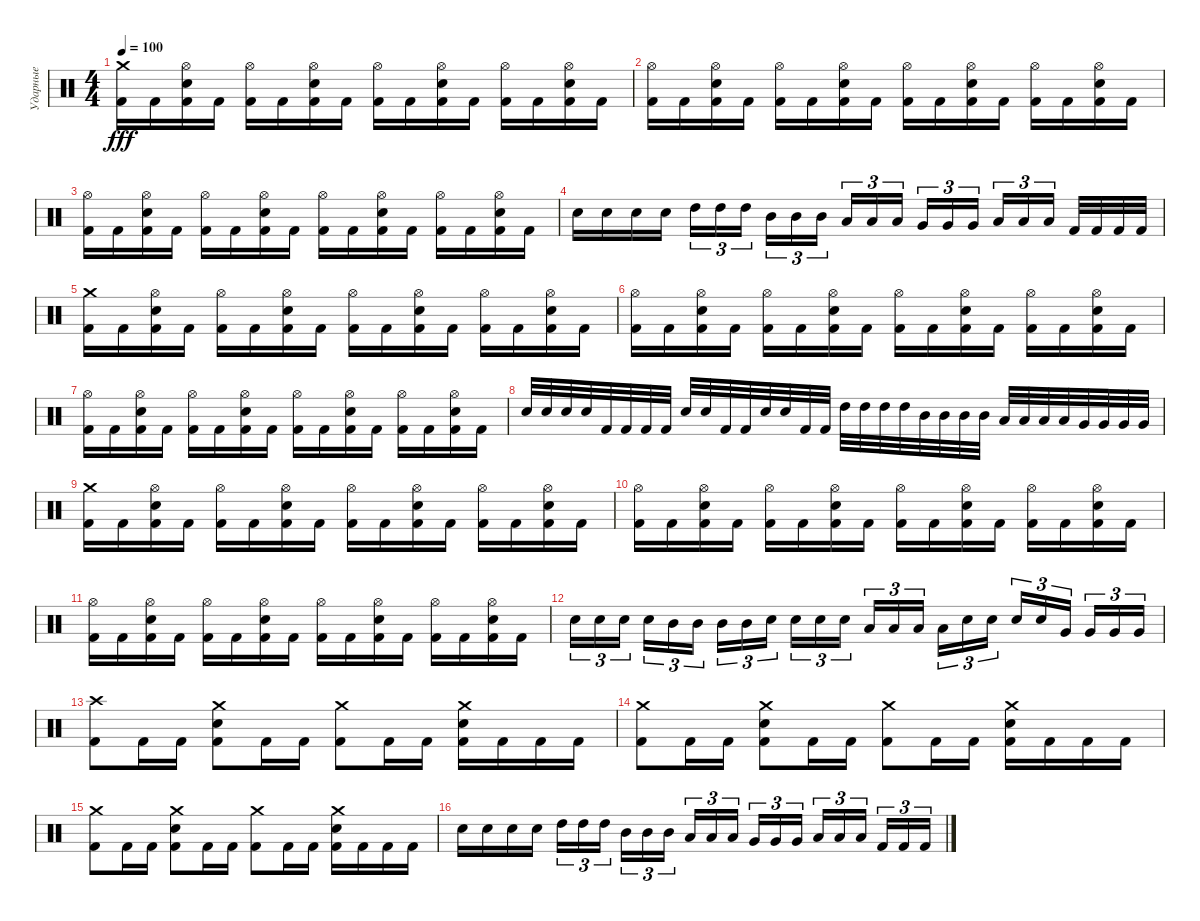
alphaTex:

\track ("Ударные" "Ударные") {instrument percussion}
\staff {score}
\articulation defaults
\ts (4 4)
\tempo 100
\clef neutral
\ks c
("Crash medium (hit)" "Kick (hit) 2").16{dy fff} "Kick (hit) 2".16 ("Hi-Hat (open)" "Electric Snare (hit)" "Kick (hit) 2").16 "Kick (hit) 2".16 ("Hi-Hat (open)" "Kick (hit) 2").16 "Kick (hit) 2".16 ("Hi-Hat (open)" "Electric Snare (hit)" "Kick (hit) 2").16 "Kick (hit) 2".16 ("Hi-Hat (open)" "Kick (hit) 2").16 "Kick (hit) 2".16 ("Hi-Hat (open)" "Electric Snare (hit)" "Kick (hit) 2").16 "Kick (hit) 2".16 ("Hi-Hat (open)" "Kick (hit) 2").16 "Kick (hit) 2".16 ("Hi-Hat (open)" "Electric Snare (hit)" "Kick (hit) 2").16 "Kick (hit) 2".16 |
("Hi-Hat (open)" "Kick (hit) 2").16 "Kick (hit) 2".16 ("Hi-Hat (open)" "Electric Snare (hit)" "Kick (hit) 2").16 "Kick (hit) 2".16 ("Hi-Hat (open)" "Kick (hit) 2").16 "Kick (hit) 2".16 ("Hi-Hat (open)" "Electric Snare (hit)" "Kick (hit) 2").16 "Kick (hit) 2".16 ("Hi-Hat (open)" "Kick (hit) 2").16 "Kick (hit) 2".16 ("Hi-Hat (open)" "Electric Snare (hit)" "Kick (hit) 2").16 "Kick (hit) 2".16 ("Hi-Hat (open)" "Kick (hit) 2").16 "Kick (hit) 2".16 ("Hi-Hat (open)" "Electric Snare (hit)" "Kick (hit) 2").16 "Kick (hit) 2".16 |
("Hi-Hat (open)" "Kick (hit) 2").16 "Kick (hit) 2".16 ("Hi-Hat (open)" "Electric Snare (hit)" "Kick (hit) 2").16 "Kick (hit) 2".16 ("Hi-Hat (open)" "Kick (hit) 2").16 "Kick (hit) 2".16 ("Hi-Hat (open)" "Electric Snare (hit)" "Kick (hit) 2").16 "Kick (hit) 2".16 ("Hi-Hat (open)" "Kick (hit) 2").16 "Kick (hit) 2".16 ("Hi-Hat (open)" "Electric Snare (hit)" "Kick (hit) 2").16 "Kick (hit) 2".16 ("Hi-Hat (open)" "Kick (hit) 2").16 "Kick (hit) 2".16 ("Hi-Hat (open)" "Electric Snare (hit)" "Kick (hit) 2").16 "Kick (hit) 2".16 |
"Electric Snare (hit)".16 "Electric Snare (hit)".16 "Electric Snare (hit)".16 "Electric Snare (hit)".16 "High Tom (hit)".16{tu (3 2)} "High Tom (hit)".16{tu (3 2)} "High Tom (hit)".16{tu (3 2) beam splitsecondary} "Mid Tom (hit)".16{tu (3 2)} "Mid Tom (hit)".16{tu (3 2)} "Mid Tom (hit)".16{tu (3 2)} "Low Tom (hit)".16{tu (3 2)} "Low Tom (hit)".16{tu (3 2)} "Low Tom (hit)".16{tu (3 2) beam splitsecondary} "Very Low Tom (hit)".16{tu (3 2)} "Very Low Tom (hit)".16{tu (3 2)} "Very Low Tom (hit)".16{tu (3 2)} "Low Floor Tom (hit)".16{tu (3 2)} "Low Floor Tom (hit)".16{tu (3 2)} "Low Floor Tom (hit)".16{tu (3 2) beam splitsecondary} "Kick (hit) 2".32 "Kick (hit) 2".32 "Kick (hit) 2".32 "Kick (hit) 2".32 |
("Crash medium (hit)" "Kick (hit) 2").16 "Kick (hit) 2".16 ("Hi-Hat (open)" "Electric Snare (hit)" "Kick (hit) 2").16 "Kick (hit) 2".16 ("Hi-Hat (open)" "Kick (hit) 2").16 "Kick (hit) 2".16 ("Hi-Hat (open)" "Electric Snare (hit)" "Kick (hit) 2").16 "Kick (hit) 2".16 ("Hi-Hat (open)" "Kick (hit) 2").16 "Kick (hit) 2".16 ("Hi-Hat (open)" "Electric Snare (hit)" "Kick (hit) 2").16 "Kick (hit) 2".16 ("Hi-Hat (open)" "Kick (hit) 2").16 "Kick (hit) 2".16 ("Hi-Hat (open)" "Electric Snare (hit)" "Kick (hit) 2").16 "Kick (hit) 2".16 |
("Hi-Hat (open)" "Kick (hit) 2").16 "Kick (hit) 2".16 ("Hi-Hat (open)" "Electric Snare (hit)" "Kick (hit) 2").16 "Kick (hit) 2".16 ("Hi-Hat (open)" "Kick (hit) 2").16 "Kick (hit) 2".16 ("Hi-Hat (open)" "Electric Snare (hit)" "Kick (hit) 2").16 "Kick (hit) 2".16 ("Hi-Hat (open)" "Kick (hit) 2").16 "Kick (hit) 2".16 ("Hi-Hat (open)" "Electric Snare (hit)" "Kick (hit) 2").16 "Kick (hit) 2".16 ("Hi-Hat (open)" "Kick (hit) 2").16 "Kick (hit) 2".16 ("Hi-Hat (open)" "Electric Snare (hit)" "Kick (hit) 2").16 "Kick (hit) 2".16 |
("Hi-Hat (open)" "Kick (hit) 2").16 "Kick (hit) 2".16 ("Hi-Hat (open)" "Electric Snare (hit)" "Kick (hit) 2").16 "Kick (hit) 2".16 ("Hi-Hat (open)" "Kick (hit) 2").16 "Kick (hit) 2".16 ("Hi-Hat (open)" "Electric Snare (hit)" "Kick (hit) 2").16 "Kick (hit) 2".16 ("Hi-Hat (open)" "Kick (hit) 2").16 "Kick (hit) 2".16 ("Hi-Hat (open)" "Electric Snare (hit)" "Kick (hit) 2").16 "Kick (hit) 2".16 ("Hi-Hat (open)" "Kick (hit) 2").16 "Kick (hit) 2".16 ("Hi-Hat (open)" "Electric Snare (hit)" "Kick (hit) 2").16 "Kick (hit) 2".16 |
"Electric Snare (hit)".32 "Electric Snare (hit)".32 "Electric Snare (hit)".32 "Electric Snare (hit)".32 "Kick (hit) 2".32 "Kick (hit) 2".32 "Kick (hit) 2".32 "Kick (hit) 2".32 "Electric Snare (hit)".32 "Electric Snare (hit)".32 "Kick (hit) 2".32 "Kick (hit) 2".32 "Electric Snare (hit)".32 "Electric Snare (hit)".32 "Kick (hit) 2".32 "Kick (hit) 2".32 "High Tom (hit)".32 "High Tom (hit)".32 "High Tom (hit)".32 "High Tom (hit)".32 "Mid Tom (hit)".32 "Mid Tom (hit)".32 "Mid Tom (hit)".32 "Mid Tom (hit)".32 "Low Tom (hit)".32 "Low Tom (hit)".32 "Low Tom (hit)".32 "Low Tom (hit)".32 "Very Low Tom (hit)".32 "Very Low Tom (hit)".32 "Very Low Tom (hit)".32 "Very Low Tom (hit)".32 |
("Crash medium (hit)" "Kick (hit) 2").16 "Kick (hit) 2".16 ("Hi-Hat (open)" "Electric Snare (hit)" "Kick (hit) 2").16 "Kick (hit) 2".16 ("Hi-Hat (open)" "Kick (hit) 2").16 "Kick (hit) 2".16 ("Hi-Hat (open)" "Electric Snare (hit)" "Kick (hit) 2").16 "Kick (hit) 2".16 ("Hi-Hat (open)" "Kick (hit) 2").16 "Kick (hit) 2".16 ("Hi-Hat (open)" "Electric Snare (hit)" "Kick (hit) 2").16 "Kick (hit) 2".16 ("Hi-Hat (open)" "Kick (hit) 2").16 "Kick (hit) 2".16 ("Hi-Hat (open)" "Electric Snare (hit)" "Kick (hit) 2").16 "Kick (hit) 2".16 |
("Hi-Hat (open)" "Kick (hit) 2").16 "Kick (hit) 2".16 ("Hi-Hat (open)" "Electric Snare (hit)" "Kick (hit) 2").16 "Kick (hit) 2".16 ("Hi-Hat (open)" "Kick (hit) 2").16 "Kick (hit) 2".16 ("Hi-Hat (open)" "Electric Snare (hit)" "Kick (hit) 2").16 "Kick (hit) 2".16 ("Hi-Hat (open)" "Kick (hit) 2").16 "Kick (hit) 2".16 ("Hi-Hat (open)" "Electric Snare (hit)" "Kick (hit) 2").16 "Kick (hit) 2".16 ("Hi-Hat (open)" "Kick (hit) 2").16 "Kick (hit) 2".16 ("Hi-Hat (open)" "Electric Snare (hit)" "Kick (hit) 2").16 "Kick (hit) 2".16 |
("Hi-Hat (open)" "Kick (hit) 2").16 "Kick (hit) 2".16 ("Hi-Hat (open)" "Electric Snare (hit)" "Kick (hit) 2").16 "Kick (hit) 2".16 ("Hi-Hat (open)" "Kick (hit) 2").16 "Kick (hit) 2".16 ("Hi-Hat (open)" "Electric Snare (hit)" "Kick (hit) 2").16 "Kick (hit) 2".16 ("Hi-Hat (open)" "Kick (hit) 2").16 "Kick (hit) 2".16 ("Hi-Hat (open)" "Electric Snare (hit)" "Kick (hit) 2").16 "Kick (hit) 2".16 ("Hi-Hat (open)" "Kick (hit) 2").16 "Kick (hit) 2".16 ("Hi-Hat (open)" "Electric Snare (hit)" "Kick (hit) 2").16 "Kick (hit) 2".16 |
"Electric Snare (hit)".16{tu (3 2)} "Electric Snare (hit)".16{tu (3 2)} "Electric Snare (hit)".16{tu (3 2) beam splitsecondary} "Electric Snare (hit)".16{tu (3 2)} "Mid Tom (hit)".16{tu (3 2)} "Mid Tom (hit)".16{tu (3 2)} "Mid Tom (hit)".16{tu (3 2)} "Mid Tom (hit)".16{tu (3 2)} "Electric Snare (hit)".16{tu (3 2) beam splitsecondary} "Electric Snare (hit)".16{tu (3 2)} "Electric Snare (hit)".16{tu (3 2)} "Electric Snare (hit)".16{tu (3 2)} "Low Tom (hit)".16{tu (3 2)} "Low Tom (hit)".16{tu (3 2)} "Low Tom (hit)".16{tu (3 2) beam splitsecondary} "Low Tom (hit)".16{tu (3 2)} "Electric Snare (hit)".16{tu (3 2)} "Electric Snare (hit)".16{tu (3 2)} "Electric Snare (hit)".16{tu (3 2)} "Electric Snare (hit)".16{tu (3 2)} "Very Low Tom (hit)".16{tu (3 2) beam splitsecondary} "Very Low Tom (hit)".16{tu (3 2)} "Very Low Tom (hit)".16{tu (3 2)} "Very Low Tom (hit)".16{tu (3 2)} |
("Crash high (hit)" "Kick (hit) 2").8 "Kick (hit) 2".16 "Kick (hit) 2".16 ("Crash medium (hit)" "Electric Snare (hit)" "Kick (hit) 2").8 "Kick (hit) 2".16 "Kick (hit) 2".16 ("Crash medium (hit)" "Kick (hit) 2").8 "Kick (hit) 2".16 "Kick (hit) 2".16 ("Crash medium (hit)" "Electric Snare (hit)" "Kick (hit) 2").16 "Kick (hit) 2".16 "Kick (hit) 2".16 "Kick (hit) 2".16 |
("Crash medium (hit)" "Kick (hit) 2").8 "Kick (hit) 2".16 "Kick (hit) 2".16 ("Crash medium (hit)" "Electric Snare (hit)" "Kick (hit) 2").8 "Kick (hit) 2".16 "Kick (hit) 2".16 ("Crash medium (hit)" "Kick (hit) 2").8 "Kick (hit) 2".16 "Kick (hit) 2".16 ("Crash medium (hit)" "Electric Snare (hit)" "Kick (hit) 2").16 "Kick (hit) 2".16 "Kick (hit) 2".16 "Kick (hit) 2".16 |
("Crash medium (hit)" "Kick (hit) 2").8 "Kick (hit) 2".16 "Kick (hit) 2".16 ("Crash medium (hit)" "Electric Snare (hit)" "Kick (hit) 2").8 "Kick (hit) 2".16 "Kick (hit) 2".16 ("Crash medium (hit)" "Kick (hit) 2").8 "Kick (hit) 2".16 "Kick (hit) 2".16 ("Crash medium (hit)" "Electric Snare (hit)" "Kick (hit) 2").16 "Kick (hit) 2".16 "Kick (hit) 2".16 "Kick (hit) 2".16 |
"Electric Snare (hit)".16 "Electric Snare (hit)".16 "Electric Snare (hit)".16 "Electric Snare (hit)".16 "High Tom (hit)".16{tu (3 2)} "High Tom (hit)".16{tu (3 2)} "High Tom (hit)".16{tu (3 2) beam splitsecondary} "Mid Tom (hit)".16{tu (3 2)} "Mid Tom (hit)".16{tu (3 2)} "Mid Tom (hit)".16{tu (3 2)} "Low Tom (hit)".16{tu (3 2)} "Low Tom (hit)".16{tu (3 2)} "Low Tom (hit)".16{tu (3 2) beam splitsecondary} "Very Low Tom (hit)".16{tu (3 2)} "Very Low Tom (hit)".16{tu (3 2)} "Very Low Tom (hit)".16{tu (3 2)} "Low Floor Tom (hit)".16{tu (3 2)} "Low Floor Tom (hit)".16{tu (3 2)} "Low Floor Tom (hit)".16{tu (3 2) beam splitsecondary} "Kick (hit) 2".16{tu (3 2)} "Kick (hit) 2".16{tu (3 2)} "Kick (hit) 2".16{tu (3 2)}
